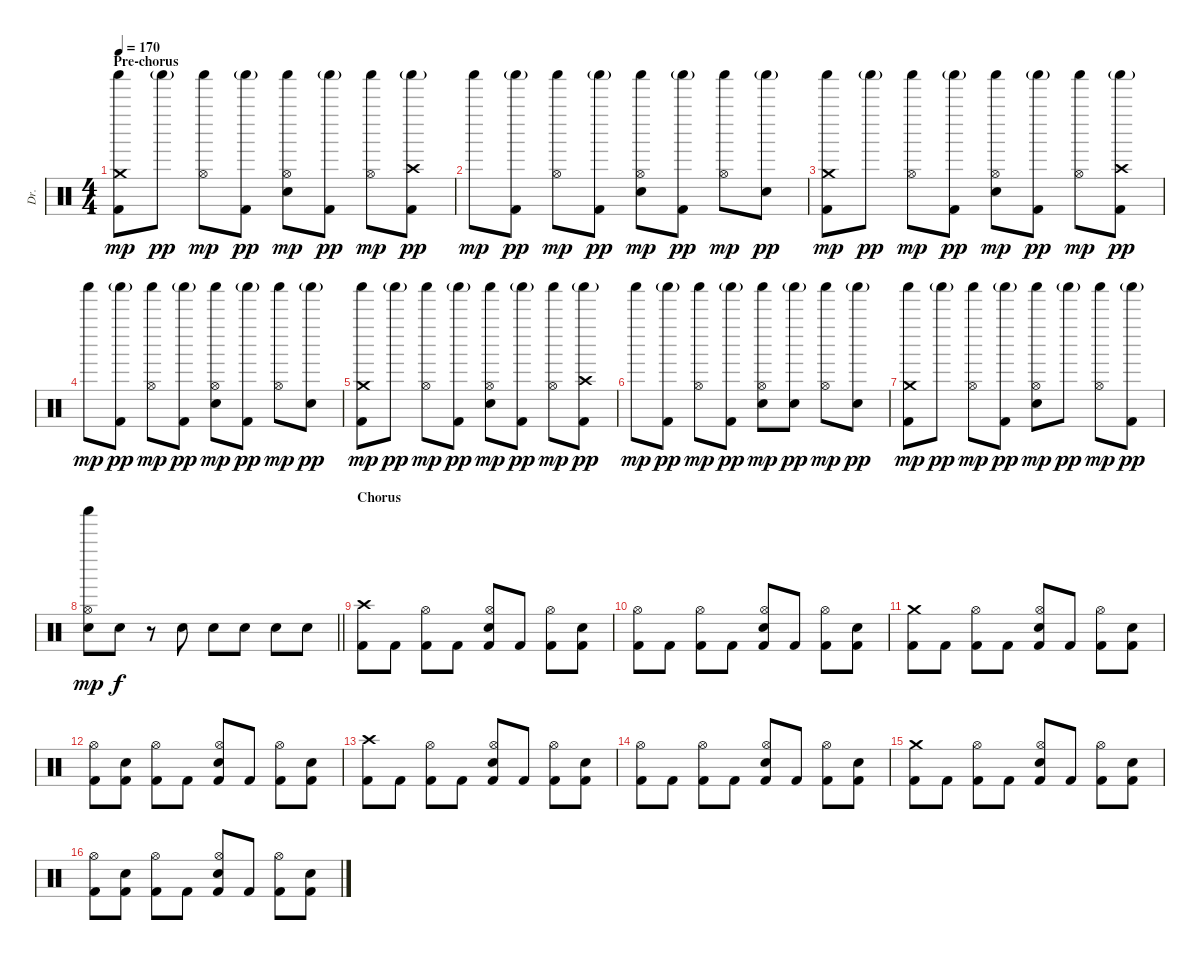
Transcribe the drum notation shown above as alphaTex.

\track ("Dr." "Dr.") {instrument percussion}
\staff {score}
\articulation defaults
\ts (4 4)
\section ("" "Pre-chorus")
\tempo 170
\clef neutral
\ks c
("Crash medium (hit)" "Shaker (hit)" "Kick (hit) 2").8{dy mp} "Shaker (hit)"{g}.8{dy pp} ("Hi-Hat (open)" "Shaker (hit)").8{dy mp} ("Shaker (hit)"{g} "Kick (hit) 2").8{dy pp} ("Hi-Hat (open)" "Shaker (hit)" "Electric Snare (hit)").8{dy mp} ("Shaker (hit)"{g} "Kick (hit) 2").8{dy pp} ("Hi-Hat (open)" "Shaker (hit)").8{dy mp} ("Crash high (hit)" "Shaker (hit)"{g} "Kick (hit) 2").8{dy pp} |
"Shaker (hit)".8{dy mp} ("Shaker (hit)"{g} "Kick (hit) 2").8{dy pp} ("Hi-Hat (open)" "Shaker (hit)").8{dy mp} ("Shaker (hit)"{g} "Kick (hit) 2").8{dy pp} ("Hi-Hat (open)" "Shaker (hit)" "Electric Snare (hit)").8{dy mp} ("Shaker (hit)"{g} "Kick (hit) 2").8{dy pp} ("Hi-Hat (open)" "Shaker (hit)").8{dy mp} ("Shaker (hit)"{g} "Electric Snare (hit)").8{dy pp} |
("Crash medium (hit)" "Shaker (hit)" "Kick (hit) 2").8{dy mp} "Shaker (hit)"{g}.8{dy pp} ("Hi-Hat (open)" "Shaker (hit)").8{dy mp} ("Shaker (hit)"{g} "Kick (hit) 2").8{dy pp} ("Hi-Hat (open)" "Shaker (hit)" "Electric Snare (hit)").8{dy mp} ("Shaker (hit)"{g} "Kick (hit) 2").8{dy pp} ("Hi-Hat (open)" "Shaker (hit)").8{dy mp} ("Crash high (hit)" "Shaker (hit)"{g} "Kick (hit) 2").8{dy pp} |
"Shaker (hit)".8{dy mp} ("Shaker (hit)"{g} "Kick (hit) 2").8{dy pp} ("Hi-Hat (open)" "Shaker (hit)").8{dy mp} ("Shaker (hit)"{g} "Kick (hit) 2").8{dy pp} ("Hi-Hat (open)" "Shaker (hit)" "Electric Snare (hit)").8{dy mp} ("Shaker (hit)"{g} "Kick (hit) 2").8{dy pp} ("Hi-Hat (open)" "Shaker (hit)").8{dy mp} ("Shaker (hit)"{g} "Electric Snare (hit)").8{dy pp} |
("Crash medium (hit)" "Shaker (hit)" "Kick (hit) 2").8{dy mp} "Shaker (hit)"{g}.8{dy pp} ("Hi-Hat (open)" "Shaker (hit)").8{dy mp} ("Shaker (hit)"{g} "Kick (hit) 2").8{dy pp} ("Hi-Hat (open)" "Shaker (hit)" "Electric Snare (hit)").8{dy mp} ("Shaker (hit)"{g} "Kick (hit) 2").8{dy pp} ("Hi-Hat (open)" "Shaker (hit)").8{dy mp} ("Crash high (hit)" "Shaker (hit)"{g} "Kick (hit) 2").8{dy pp} |
"Shaker (hit)".8{dy mp} ("Shaker (hit)"{g} "Kick (hit) 2").8{dy pp} ("Hi-Hat (open)" "Shaker (hit)").8{dy mp} ("Shaker (hit)"{g} "Kick (hit) 2").8{dy pp} ("Hi-Hat (open)" "Shaker (hit)" "Electric Snare (hit)").8{dy mp} ("Shaker (hit)"{g} "Electric Snare (hit)").8{dy pp} ("Hi-Hat (open)" "Shaker (hit)").8{dy mp} ("Shaker (hit)"{g} "Electric Snare (hit)").8{dy pp} |
("Crash medium (hit)" "Shaker (hit)" "Kick (hit) 2").8{dy mp} "Shaker (hit)"{g}.8{dy pp} ("Hi-Hat (open)" "Shaker (hit)").8{dy mp} ("Shaker (hit)"{g} "Kick (hit) 2").8{dy pp} ("Hi-Hat (open)" "Shaker (hit)" "Electric Snare (hit)").8{dy mp} "Shaker (hit)"{g}.8{dy pp} ("Hi-Hat (open)" "Shaker (hit)").8{dy mp} ("Shaker (hit)"{g} "Kick (hit) 2").8{dy pp} |
\barLineRight lightlight
("Hi-Hat (open)" "Shaker (hit)" "Electric Snare (hit)").8{dy mp} "Electric Snare (hit)".8{dy f} r.8 "Electric Snare (hit)".8 "Electric Snare (hit)".8 "Electric Snare (hit)".8 "Electric Snare (hit)".8 "Electric Snare (hit)".8 |
\section ("" "Chorus")
("Crash high (hit)" "Kick (hit) 2").8 "Kick (hit) 2".8 ("Hi-Hat (open)" "Kick (hit) 2").8 "Kick (hit) 2".8 ("Hi-Hat (open)" "Electric Snare (hit)" "Kick (hit) 2").8 "Kick (hit) 2".8 ("Hi-Hat (open)" "Kick (hit) 2").8 ("Electric Snare (hit)" "Kick (hit) 2").8 |
("Hi-Hat (open)" "Kick (hit) 2").8 "Kick (hit) 2".8 ("Hi-Hat (open)" "Kick (hit) 2").8 "Kick (hit) 2".8 ("Hi-Hat (open)" "Electric Snare (hit)" "Kick (hit) 2").8 "Kick (hit) 2".8 ("Hi-Hat (open)" "Kick (hit) 2").8 ("Electric Snare (hit)" "Kick (hit) 2").8 |
("Crash medium (hit)" "Kick (hit) 2").8 "Kick (hit) 2".8 ("Hi-Hat (open)" "Kick (hit) 2").8 "Kick (hit) 2".8 ("Hi-Hat (open)" "Electric Snare (hit)" "Kick (hit) 2").8 "Kick (hit) 2".8 ("Hi-Hat (open)" "Kick (hit) 2").8 ("Electric Snare (hit)" "Kick (hit) 2").8 |
("Hi-Hat (open)" "Kick (hit) 2").8 ("Electric Snare (hit)" "Kick (hit) 2").8 ("Hi-Hat (open)" "Kick (hit) 2").8 "Kick (hit) 2".8 ("Hi-Hat (open)" "Electric Snare (hit)" "Kick (hit) 2").8 "Kick (hit) 2".8 ("Hi-Hat (open)" "Kick (hit) 2").8 ("Electric Snare (hit)" "Kick (hit) 2").8 |
("Crash high (hit)" "Kick (hit) 2").8 "Kick (hit) 2".8 ("Hi-Hat (open)" "Kick (hit) 2").8 "Kick (hit) 2".8 ("Hi-Hat (open)" "Electric Snare (hit)" "Kick (hit) 2").8 "Kick (hit) 2".8 ("Hi-Hat (open)" "Kick (hit) 2").8 ("Electric Snare (hit)" "Kick (hit) 2").8 |
("Hi-Hat (open)" "Kick (hit) 2").8 "Kick (hit) 2".8 ("Hi-Hat (open)" "Kick (hit) 2").8 "Kick (hit) 2".8 ("Hi-Hat (open)" "Electric Snare (hit)" "Kick (hit) 2").8 "Kick (hit) 2".8 ("Hi-Hat (open)" "Kick (hit) 2").8 ("Electric Snare (hit)" "Kick (hit) 2").8 |
("Crash medium (hit)" "Kick (hit) 2").8 "Kick (hit) 2".8 ("Hi-Hat (open)" "Kick (hit) 2").8 "Kick (hit) 2".8 ("Hi-Hat (open)" "Electric Snare (hit)" "Kick (hit) 2").8 "Kick (hit) 2".8 ("Hi-Hat (open)" "Kick (hit) 2").8 ("Electric Snare (hit)" "Kick (hit) 2").8 |
("Hi-Hat (open)" "Kick (hit) 2").8 ("Electric Snare (hit)" "Kick (hit) 2").8 ("Hi-Hat (open)" "Kick (hit) 2").8 "Kick (hit) 2".8 ("Hi-Hat (open)" "Electric Snare (hit)" "Kick (hit) 2").8 "Kick (hit) 2".8 ("Hi-Hat (open)" "Kick (hit) 2").8 ("Electric Snare (hit)" "Kick (hit) 2").8
